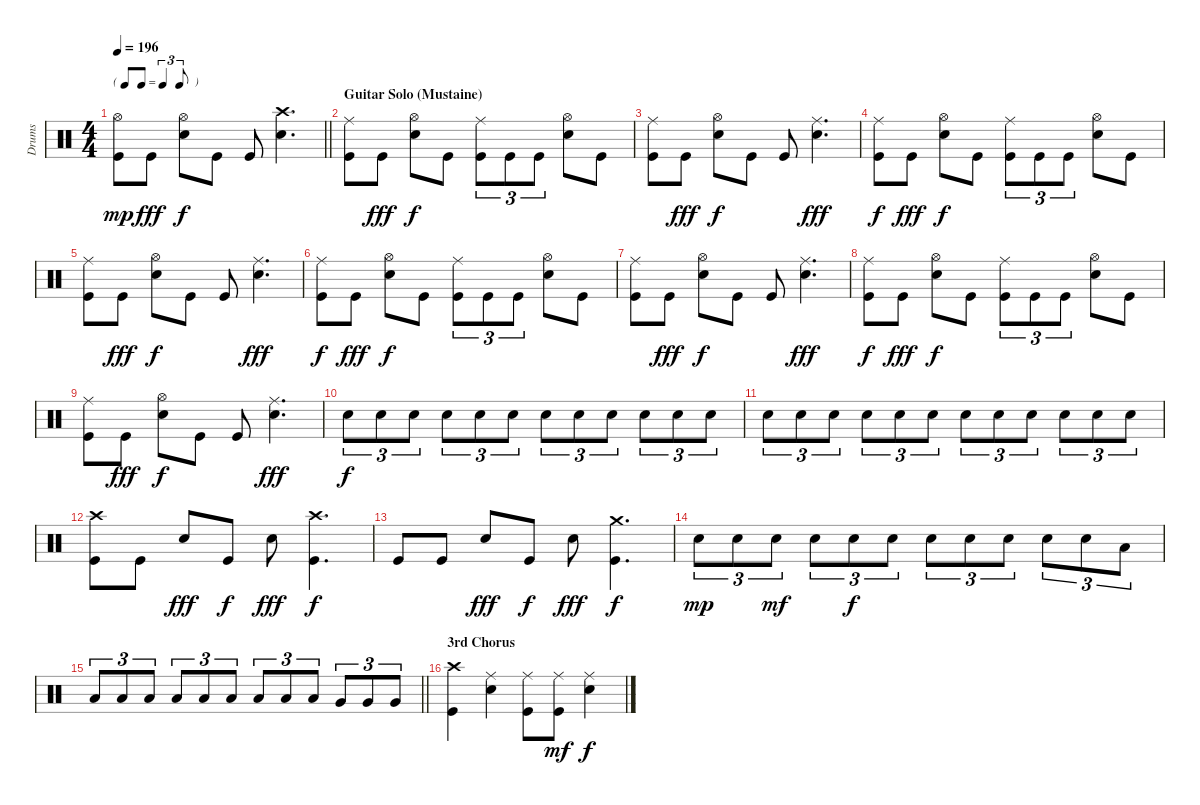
\track ("Drums" "Drums") {instrument percussion}
\staff {score}
\articulation defaults
\ts (4 4)
\tf triplet8th
\tempo 196
\clef neutral
\barLineRight lightlight
\ks c
("Hi-Hat (open)" "Kick (hit)").8{dy mp} "Kick (hit)".8{dy fff} ("Hi-Hat (open)" "Snare (hit) 2").8{dy f} "Kick (hit)".8 "Kick (hit)".8 ("Crash high (hit)" "Snare (hit) 2").4{d} |
\section ("" "Guitar Solo (Mustaine)")
("Ride (middle)" "Kick (hit)").8 "Kick (hit)".8{dy fff} ("Hi-Hat (open)" "Snare (hit) 2").8{dy f} "Kick (hit)".8 ("Ride (middle)" "Kick (hit)").8{tu (3 2)} "Kick (hit)".8{tu (3 2)} "Kick (hit)".8{tu (3 2)} ("Hi-Hat (open)" "Snare (hit) 2").8 "Kick (hit)".8 |
("Ride (middle)" "Kick (hit)").8 "Kick (hit)".8{dy fff} ("Hi-Hat (open)" "Snare (hit) 2").8{dy f} "Kick (hit)".8 "Kick (hit)".8 ("Ride (middle)" "Snare (hit) 2").4{d dy fff} |
("Ride (middle)" "Kick (hit)").8{dy f} "Kick (hit)".8{dy fff} ("Hi-Hat (open)" "Snare (hit) 2").8{dy f} "Kick (hit)".8 ("Ride (middle)" "Kick (hit)").8{tu (3 2)} "Kick (hit)".8{tu (3 2)} "Kick (hit)".8{tu (3 2)} ("Hi-Hat (open)" "Snare (hit) 2").8 "Kick (hit)".8 |
("Ride (middle)" "Kick (hit)").8 "Kick (hit)".8{dy fff} ("Hi-Hat (open)" "Snare (hit) 2").8{dy f} "Kick (hit)".8 "Kick (hit)".8 ("Ride (middle)" "Snare (hit) 2").4{d dy fff} |
("Ride (middle)" "Kick (hit)").8{dy f} "Kick (hit)".8{dy fff} ("Hi-Hat (open)" "Snare (hit) 2").8{dy f} "Kick (hit)".8 ("Ride (middle)" "Kick (hit)").8{tu (3 2)} "Kick (hit)".8{tu (3 2)} "Kick (hit)".8{tu (3 2)} ("Hi-Hat (open)" "Snare (hit) 2").8 "Kick (hit)".8 |
("Ride (middle)" "Kick (hit)").8 "Kick (hit)".8{dy fff} ("Hi-Hat (open)" "Snare (hit) 2").8{dy f} "Kick (hit)".8 "Kick (hit)".8 ("Ride (middle)" "Snare (hit) 2").4{d dy fff} |
("Ride (middle)" "Kick (hit)").8{dy f} "Kick (hit)".8{dy fff} ("Hi-Hat (open)" "Snare (hit) 2").8{dy f} "Kick (hit)".8 ("Ride (middle)" "Kick (hit)").8{tu (3 2)} "Kick (hit)".8{tu (3 2)} "Kick (hit)".8{tu (3 2)} ("Hi-Hat (open)" "Snare (hit) 2").8 "Kick (hit)".8 |
("Ride (middle)" "Kick (hit)").8 "Kick (hit)".8{dy fff} ("Hi-Hat (open)" "Snare (hit) 2").8{dy f} "Kick (hit)".8 "Kick (hit)".8 ("Ride (middle)" "Snare (hit) 2").4{d dy fff} |
"Snare (hit) 2".8{tu (3 2) dy f} "Snare (hit) 2".8{tu (3 2)} "Snare (hit) 2".8{tu (3 2)} "Snare (hit) 2".8{tu (3 2)} "Snare (hit) 2".8{tu (3 2)} "Snare (hit) 2".8{tu (3 2)} "Snare (hit) 2".8{tu (3 2)} "Snare (hit) 2".8{tu (3 2)} "Snare (hit) 2".8{tu (3 2)} "Snare (hit) 2".8{tu (3 2)} "Snare (hit) 2".8{tu (3 2)} "Snare (hit) 2".8{tu (3 2)} |
"Snare (hit) 2".8{tu (3 2)} "Snare (hit) 2".8{tu (3 2)} "Snare (hit) 2".8{tu (3 2)} "Snare (hit) 2".8{tu (3 2)} "Snare (hit) 2".8{tu (3 2)} "Snare (hit) 2".8{tu (3 2)} "Snare (hit) 2".8{tu (3 2)} "Snare (hit) 2".8{tu (3 2)} "Snare (hit) 2".8{tu (3 2)} "Snare (hit) 2".8{tu (3 2)} "Snare (hit) 2".8{tu (3 2)} "Snare (hit) 2".8{tu (3 2)} |
("Crash high (hit)" "Kick (hit)").8 "Kick (hit)".8 "Snare (hit) 2".8{dy fff} "Kick (hit)".8{dy f} "Snare (hit) 2".8{dy fff} ("Crash high (hit)" "Kick (hit)").4{d dy f} |
"Kick (hit)".8 "Kick (hit)".8 "Snare (hit) 2".8{dy fff} "Kick (hit)".8{dy f} "Snare (hit) 2".8{dy fff} ("Crash medium (hit)" "Kick (hit)").4{d dy f} |
"Snare (hit) 2".8{tu (3 2) dy mp} "Snare (hit) 2".8{tu (3 2)} "Snare (hit) 2".8{tu (3 2) dy mf} "Snare (hit) 2".8{tu (3 2)} "Snare (hit) 2".8{tu (3 2) dy f} "Snare (hit) 2".8{tu (3 2)} "Snare (hit) 2".8{tu (3 2)} "Snare (hit) 2".8{tu (3 2)} "Snare (hit) 2".8{tu (3 2)} "Snare (hit) 2".8{tu (3 2)} "Snare (hit) 2".8{tu (3 2)} "Low Tom (hit)".8{tu (3 2)} |
\barLineRight lightlight "Low Tom (hit)".8{tu (3 2)} "Low Tom (hit)".8{tu (3 2)} "Low Tom (hit)".8{tu (3 2)} "Low Tom (hit)".8{tu (3 2)} "Low Tom (hit)".8{tu (3 2)} "Low Tom (hit)".8{tu (3 2)} "Low Tom (hit)".8{tu (3 2)} "Low Tom (hit)".8{tu (3 2)} "Low Tom (hit)".8{tu (3 2)} "Very Low Tom (hit)".8{tu (3 2)} "Very Low Tom (hit)".8{tu (3 2)} "Very Low Tom (hit)".8{tu (3 2)}
|
\section ("" "3rd Chorus")
("Crash high (hit)" "Kick (hit)").4 ("Ride (middle)" "Snare (hit) 2").4 ("Ride (middle)" "Kick (hit)").8 ("Ride (middle)" "Kick (hit)").8{dy mf} ("Ride (middle)" "Snare (hit) 2").4{dy f}
